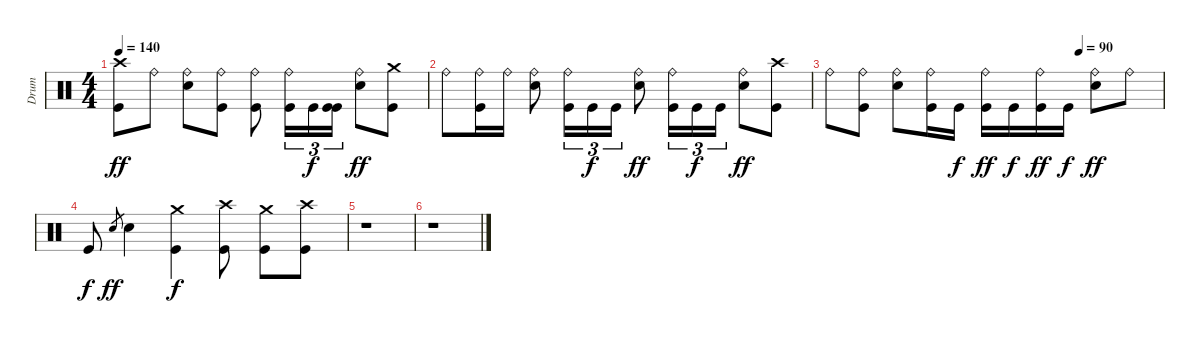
\track ("Drum" "Drum") {instrument percussion}
\staff {score}
\articulation defaults
\ts (4 4)
\tempo 140
\clef neutral
\ks c
("Kick (hit)" "Crash high (hit)").8{dy ff} "Ride (bell)".8 ("Electric Snare (hit)" "Ride (bell)").8 ("Kick (hit)" "Ride (bell)").8 ("Kick (hit)" "Ride (bell)").8 ("Kick (hit)" "Ride (bell)").16{tu (3 2)} "Kick (hit)".16{tu (3 2) dy f} ("Kick (hit)" "Kick (hit)").16{tu (3 2)} ("Electric Snare (hit)" "Ride (bell)").8{dy ff} ("Kick (hit)" "Crash medium (hit)").8 |
"Ride (bell)".8 ("Kick (hit)" "Ride (bell)").16 "Ride (bell)".16 ("Electric Snare (hit)" "Ride (bell)").8 ("Kick (hit)" "Ride (bell)").16{tu (3 2)} "Kick (hit)".16{tu (3 2) dy f} "Kick (hit)".16{tu (3 2)} ("Electric Snare (hit)" "Ride (bell)").8{dy ff} ("Kick (hit)" "Ride (bell)").16{tu (3 2)} "Kick (hit)".16{tu (3 2) dy f} "Kick (hit)".16{tu (3 2)} ("Electric Snare (hit)" "Ride (bell)").8{dy ff} ("Kick (hit)" "Crash high (hit)").8 |
\tempo (90 0.75)
"Ride (bell)".8 ("Kick (hit)" "Ride (bell)").8 ("Electric Snare (hit)" "Ride (bell)").8 ("Kick (hit)" "Ride (bell)").16 "Kick (hit)".16{dy f} ("Kick (hit)" "Ride (bell)").16{dy ff} "Kick (hit)".16{dy f} ("Kick (hit)" "Ride (bell)").16{dy ff} "Kick (hit)".16{dy f} ("Electric Snare (hit)" "Ride (bell)").8{dy ff} "Ride (bell)".8 |
"Kick (hit)".8{dy f} "Electric Snare (hit)".8{gr dy ff} "Electric Snare (hit)".4 ("Kick (hit)" "Crash medium (hit)").4{dy f} ("Kick (hit)" "Crash high (hit)").8 ("Kick (hit)" "Crash medium (hit)").8 ("Kick (hit)" "Crash high (hit)").8 |
r.1 |
r.1
